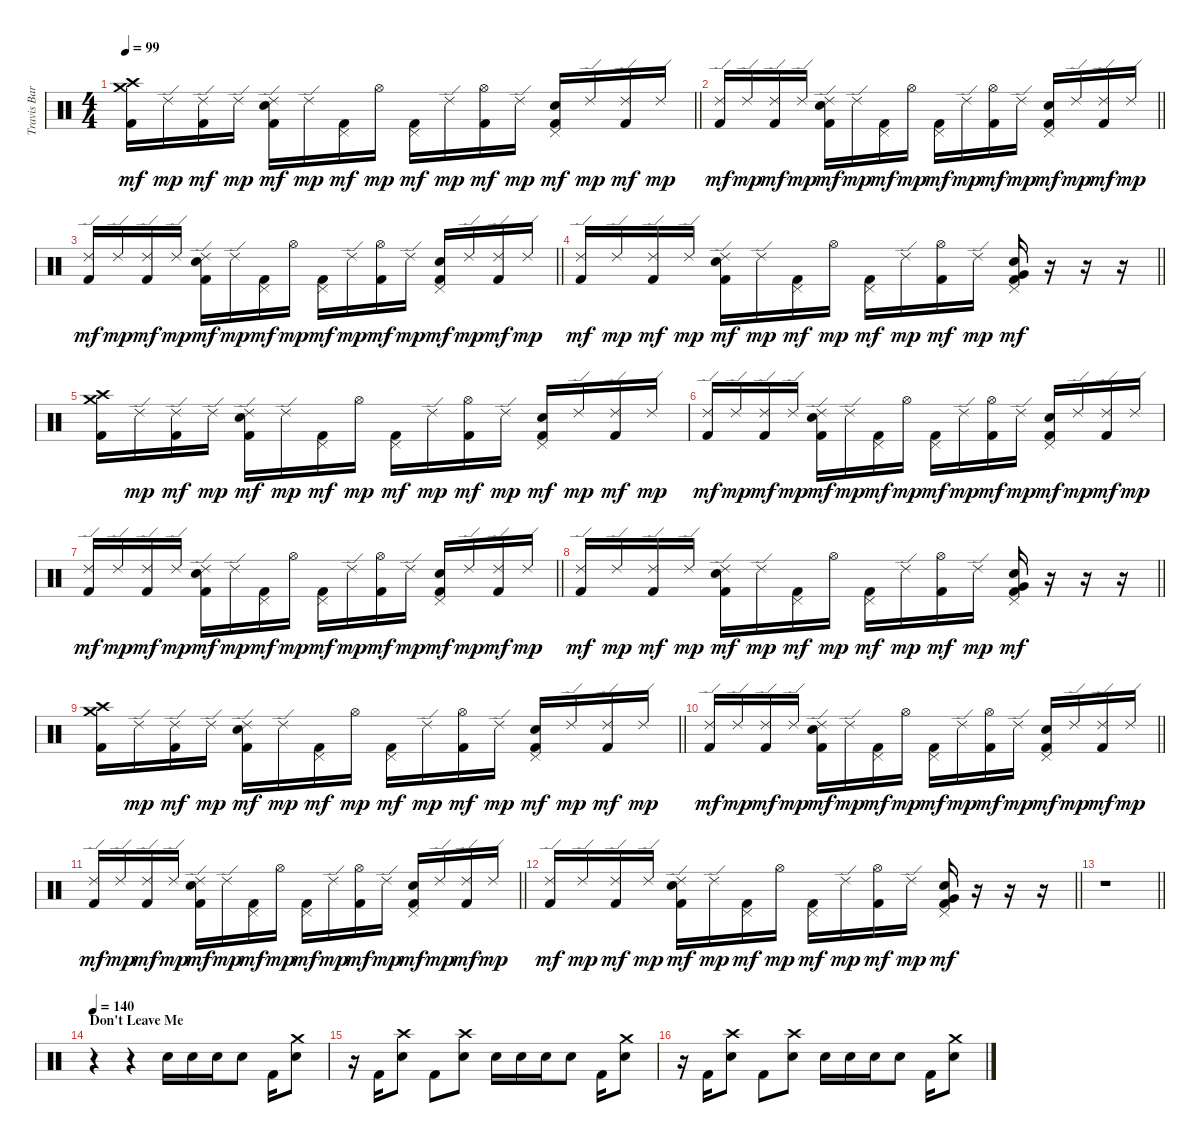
\track ("Travis Barker" "Travis Bar") {instrument percussion}
\staff {score}
\articulation defaults
\ts (4 4)
\tempo 99
\clef neutral
\barLineRight lightlight
\ks c
("Crash medium (hit)" "Crash high (hit)" "Kick (hit) 2").16{dy mf} "Ride (edge) 2".16{dy mp} ("Ride (edge) 2" "Kick (hit) 2").16{dy mf} "Ride (edge) 2".16{dy mp} ("Ride (edge) 2" "Electric Snare (hit)" "Kick (hit) 2").16{dy mf} "Ride (edge) 2".16{dy mp} ("Pedal Hi-Hat (hit)" "Kick (hit) 2").16{dy mf} "Hi-Hat (open)".16{dy mp} ("Pedal Hi-Hat (hit)" "Kick (hit) 2").16{dy mf} "Ride (edge) 2".16{dy mp} ("Hi-Hat (open)" "Kick (hit) 2").16{dy mf} "Ride (edge) 2".16{dy mp} ("Pedal Hi-Hat (hit)" "Electric Snare (hit)" "Kick (hit) 2").16{dy mf} "Ride (edge) 2".16{dy mp} ("Ride (edge) 2" "Kick (hit) 2").16{dy mf} "Ride (edge) 2".16{dy mp} |
\barLineRight lightlight
("Ride (edge) 2" "Kick (hit) 2").16{dy mf} "Ride (edge) 2".16{dy mp} ("Ride (edge) 2" "Kick (hit) 2").16{dy mf} "Ride (edge) 2".16{dy mp} ("Ride (edge) 2" "Electric Snare (hit)" "Kick (hit) 2").16{dy mf} "Ride (edge) 2".16{dy mp} ("Pedal Hi-Hat (hit)" "Kick (hit) 2").16{dy mf} "Hi-Hat (open)".16{dy mp} ("Pedal Hi-Hat (hit)" "Kick (hit) 2").16{dy mf} "Ride (edge) 2".16{dy mp} ("Hi-Hat (open)" "Kick (hit) 2").16{dy mf} "Ride (edge) 2".16{dy mp} ("Pedal Hi-Hat (hit)" "Electric Snare (hit)" "Kick (hit) 2").16{dy mf} "Ride (edge) 2".16{dy mp} ("Ride (edge) 2" "Kick (hit) 2").16{dy mf} "Ride (edge) 2".16{dy mp} |
\barLineRight lightlight
("Ride (edge) 2" "Kick (hit) 2").16{dy mf} "Ride (edge) 2".16{dy mp} ("Ride (edge) 2" "Kick (hit) 2").16{dy mf} "Ride (edge) 2".16{dy mp} ("Ride (edge) 2" "Electric Snare (hit)" "Kick (hit) 2").16{dy mf} "Ride (edge) 2".16{dy mp} ("Pedal Hi-Hat (hit)" "Kick (hit) 2").16{dy mf} "Hi-Hat (open)".16{dy mp} ("Pedal Hi-Hat (hit)" "Kick (hit) 2").16{dy mf} "Ride (edge) 2".16{dy mp} ("Hi-Hat (open)" "Kick (hit) 2").16{dy mf} "Ride (edge) 2".16{dy mp} ("Pedal Hi-Hat (hit)" "Electric Snare (hit)" "Kick (hit) 2").16{dy mf} "Ride (edge) 2".16{dy mp} ("Ride (edge) 2" "Kick (hit) 2").16{dy mf} "Ride (edge) 2".16{dy mp} |
\barLineRight lightlight
("Ride (edge) 2" "Kick (hit) 2").16{dy mf} "Ride (edge) 2".16{dy mp} ("Ride (edge) 2" "Kick (hit) 2").16{dy mf} "Ride (edge) 2".16{dy mp} ("Ride (edge) 2" "Electric Snare (hit)" "Kick (hit) 2").16{dy mf} "Ride (edge) 2".16{dy mp} ("Pedal Hi-Hat (hit)" "Kick (hit) 2").16{dy mf} "Hi-Hat (open)".16{dy mp} ("Pedal Hi-Hat (hit)" "Kick (hit) 2").16{dy mf} "Ride (edge) 2".16{dy mp} ("Hi-Hat (open)" "Kick (hit) 2").16{dy mf} "Ride (edge) 2".16{dy mp} ("Pedal Hi-Hat (hit)" "Electric Snare (hit)" "Very Low Tom (hit)" "Kick (hit) 2").16{dy mf} r.16 r.16 r.16 |
("Crash medium (hit)" "Crash high (hit)" "Kick (hit) 2").16 "Ride (edge) 2".16{dy mp} ("Ride (edge) 2" "Kick (hit) 2").16{dy mf} "Ride (edge) 2".16{dy mp} ("Ride (edge) 2" "Electric Snare (hit)" "Kick (hit) 2").16{dy mf} "Ride (edge) 2".16{dy mp} ("Pedal Hi-Hat (hit)" "Kick (hit) 2").16{dy mf} "Hi-Hat (open)".16{dy mp} ("Pedal Hi-Hat (hit)" "Kick (hit) 2").16{dy mf} "Ride (edge) 2".16{dy mp} ("Hi-Hat (open)" "Kick (hit) 2").16{dy mf} "Ride (edge) 2".16{dy mp} ("Pedal Hi-Hat (hit)" "Electric Snare (hit)" "Kick (hit) 2").16{dy mf} "Ride (edge) 2".16{dy mp} ("Ride (edge) 2" "Kick (hit) 2").16{dy mf} "Ride (edge) 2".16{dy mp} |
("Ride (edge) 2" "Kick (hit) 2").16{dy mf} "Ride (edge) 2".16{dy mp} ("Ride (edge) 2" "Kick (hit) 2").16{dy mf} "Ride (edge) 2".16{dy mp} ("Ride (edge) 2" "Electric Snare (hit)" "Kick (hit) 2").16{dy mf} "Ride (edge) 2".16{dy mp} ("Pedal Hi-Hat (hit)" "Kick (hit) 2").16{dy mf} "Hi-Hat (open)".16{dy mp} ("Pedal Hi-Hat (hit)" "Kick (hit) 2").16{dy mf} "Ride (edge) 2".16{dy mp} ("Hi-Hat (open)" "Kick (hit) 2").16{dy mf} "Ride (edge) 2".16{dy mp} ("Pedal Hi-Hat (hit)" "Electric Snare (hit)" "Kick (hit) 2").16{dy mf} "Ride (edge) 2".16{dy mp} ("Ride (edge) 2" "Kick (hit) 2").16{dy mf} "Ride (edge) 2".16{dy mp} |
\barLineRight lightlight
("Ride (edge) 2" "Kick (hit) 2").16{dy mf} "Ride (edge) 2".16{dy mp} ("Ride (edge) 2" "Kick (hit) 2").16{dy mf} "Ride (edge) 2".16{dy mp} ("Ride (edge) 2" "Electric Snare (hit)" "Kick (hit) 2").16{dy mf} "Ride (edge) 2".16{dy mp} ("Pedal Hi-Hat (hit)" "Kick (hit) 2").16{dy mf} "Hi-Hat (open)".16{dy mp} ("Pedal Hi-Hat (hit)" "Kick (hit) 2").16{dy mf} "Ride (edge) 2".16{dy mp} ("Hi-Hat (open)" "Kick (hit) 2").16{dy mf} "Ride (edge) 2".16{dy mp} ("Pedal Hi-Hat (hit)" "Electric Snare (hit)" "Kick (hit) 2").16{dy mf} "Ride (edge) 2".16{dy mp} ("Ride (edge) 2" "Kick (hit) 2").16{dy mf} "Ride (edge) 2".16{dy mp} |
\barLineRight lightlight
("Ride (edge) 2" "Kick (hit) 2").16{dy mf} "Ride (edge) 2".16{dy mp} ("Ride (edge) 2" "Kick (hit) 2").16{dy mf} "Ride (edge) 2".16{dy mp} ("Ride (edge) 2" "Electric Snare (hit)" "Kick (hit) 2").16{dy mf} "Ride (edge) 2".16{dy mp} ("Pedal Hi-Hat (hit)" "Kick (hit) 2").16{dy mf} "Hi-Hat (open)".16{dy mp} ("Pedal Hi-Hat (hit)" "Kick (hit) 2").16{dy mf} "Ride (edge) 2".16{dy mp} ("Hi-Hat (open)" "Kick (hit) 2").16{dy mf} "Ride (edge) 2".16{dy mp} ("Pedal Hi-Hat (hit)" "Electric Snare (hit)" "Very Low Tom (hit)" "Kick (hit) 2").16{dy mf} r.16 r.16 r.16 |
\barLineRight lightlight
("Crash medium (hit)" "Crash high (hit)" "Kick (hit) 2").16 "Ride (edge) 2".16{dy mp} ("Ride (edge) 2" "Kick (hit) 2").16{dy mf} "Ride (edge) 2".16{dy mp} ("Ride (edge) 2" "Electric Snare (hit)" "Kick (hit) 2").16{dy mf} "Ride (edge) 2".16{dy mp} ("Pedal Hi-Hat (hit)" "Kick (hit) 2").16{dy mf} "Hi-Hat (open)".16{dy mp} ("Pedal Hi-Hat (hit)" "Kick (hit) 2").16{dy mf} "Ride (edge) 2".16{dy mp} ("Hi-Hat (open)" "Kick (hit) 2").16{dy mf} "Ride (edge) 2".16{dy mp} ("Pedal Hi-Hat (hit)" "Electric Snare (hit)" "Kick (hit) 2").16{dy mf} "Ride (edge) 2".16{dy mp} ("Ride (edge) 2" "Kick (hit) 2").16{dy mf} "Ride (edge) 2".16{dy mp} |
\barLineRight lightlight
("Ride (edge) 2" "Kick (hit) 2").16{dy mf} "Ride (edge) 2".16{dy mp} ("Ride (edge) 2" "Kick (hit) 2").16{dy mf} "Ride (edge) 2".16{dy mp} ("Ride (edge) 2" "Electric Snare (hit)" "Kick (hit) 2").16{dy mf} "Ride (edge) 2".16{dy mp} ("Pedal Hi-Hat (hit)" "Kick (hit) 2").16{dy mf} "Hi-Hat (open)".16{dy mp} ("Pedal Hi-Hat (hit)" "Kick (hit) 2").16{dy mf} "Ride (edge) 2".16{dy mp} ("Hi-Hat (open)" "Kick (hit) 2").16{dy mf} "Ride (edge) 2".16{dy mp} ("Pedal Hi-Hat (hit)" "Electric Snare (hit)" "Kick (hit) 2").16{dy mf} "Ride (edge) 2".16{dy mp} ("Ride (edge) 2" "Kick (hit) 2").16{dy mf} "Ride (edge) 2".16{dy mp} |
\barLineRight lightlight
("Ride (edge) 2" "Kick (hit) 2").16{dy mf} "Ride (edge) 2".16{dy mp} ("Ride (edge) 2" "Kick (hit) 2").16{dy mf} "Ride (edge) 2".16{dy mp} ("Ride (edge) 2" "Electric Snare (hit)" "Kick (hit) 2").16{dy mf} "Ride (edge) 2".16{dy mp} ("Pedal Hi-Hat (hit)" "Kick (hit) 2").16{dy mf} "Hi-Hat (open)".16{dy mp} ("Pedal Hi-Hat (hit)" "Kick (hit) 2").16{dy mf} "Ride (edge) 2".16{dy mp} ("Hi-Hat (open)" "Kick (hit) 2").16{dy mf} "Ride (edge) 2".16{dy mp} ("Pedal Hi-Hat (hit)" "Electric Snare (hit)" "Kick (hit) 2").16{dy mf} "Ride (edge) 2".16{dy mp} ("Ride (edge) 2" "Kick (hit) 2").16{dy mf} "Ride (edge) 2".16{dy mp} |
\barLineRight lightlight
("Ride (edge) 2" "Kick (hit) 2").16{dy mf} "Ride (edge) 2".16{dy mp} ("Ride (edge) 2" "Kick (hit) 2").16{dy mf} "Ride (edge) 2".16{dy mp} ("Ride (edge) 2" "Electric Snare (hit)" "Kick (hit) 2").16{dy mf} "Ride (edge) 2".16{dy mp} ("Pedal Hi-Hat (hit)" "Kick (hit) 2").16{dy mf} "Hi-Hat (open)".16{dy mp} ("Pedal Hi-Hat (hit)" "Kick (hit) 2").16{dy mf} "Ride (edge) 2".16{dy mp} ("Hi-Hat (open)" "Kick (hit) 2").16{dy mf} "Ride (edge) 2".16{dy mp} ("Pedal Hi-Hat (hit)" "Electric Snare (hit)" "Very Low Tom (hit)" "Kick (hit) 2").16{dy mf} r.16 r.16 r.16 |
\barLineRight lightlight
r.1 |
\section ("" "Don't Leave Me")
\tempo 140
r.4 r.4 "Electric Snare (hit)".16 "Electric Snare (hit)".16 "Electric Snare (hit)".16 "Electric Snare (hit)".8 "Kick (hit) 2".16 ("Crash medium (hit)" "Electric Snare (hit)").8 |
r.16 "Kick (hit) 2".16 ("Crash high (hit)" "Electric Snare (hit)").8 "Kick (hit) 2".8 ("Crash high (hit)" "Electric Snare (hit)").8 "Electric Snare (hit)".16 "Electric Snare (hit)".16 "Electric Snare (hit)".16 "Electric Snare (hit)".8 "Kick (hit) 2".16 ("Crash medium (hit)" "Electric Snare (hit)").8 |
r.16 "Kick (hit) 2".16 ("Crash high (hit)" "Electric Snare (hit)").8 "Kick (hit) 2".8 ("Crash high (hit)" "Electric Snare (hit)").8 "Electric Snare (hit)".16 "Electric Snare (hit)".16 "Electric Snare (hit)".16 "Electric Snare (hit)".8 "Kick (hit) 2".16 ("Crash medium (hit)" "Electric Snare (hit)").8
